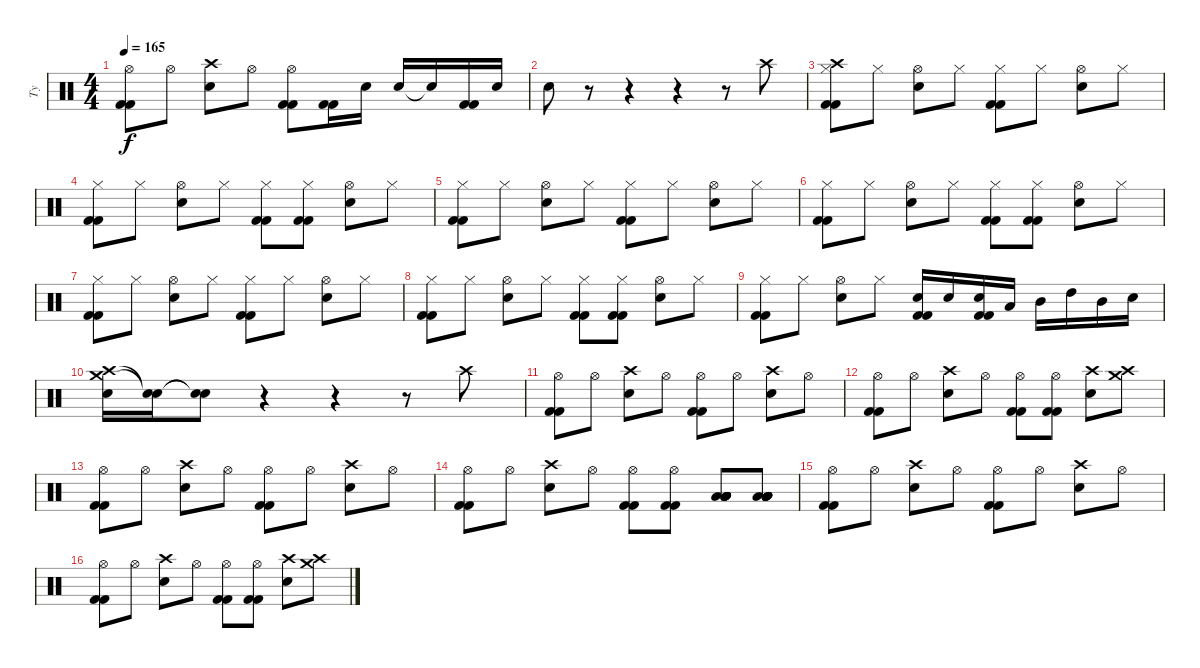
\track ("Ty" "Ty") {instrument percussion}
\staff {score}
\articulation defaults
\ts (4 4)
\tempo 165
\clef neutral
\ks c
("Hi-Hat (open)" "Kick (hit) 2" "Kick (hit) 2").8{dy f} "Hi-Hat (open)".8 ("Crash high (hit)" "Electric Snare (hit)").8 "Hi-Hat (open)".8 ("Hi-Hat (open)" "Kick (hit) 2" "Kick (hit) 2").8 ("Kick (hit) 2" "Kick (hit) 2").16 "Electric Snare (hit)".16 "Electric Snare (hit)".16 "Snare (hit)"{t}.16 ("Kick (hit) 2" "Kick (hit) 2").16 "Electric Snare (hit)".16 |
"Electric Snare (hit)".8 r.8 r.4 r.4 r.8 "Crash high (hit)".8 |
("Hi-Hat (closed)" "Crash high (hit)" "Kick (hit) 2" "Kick (hit) 2").8 "Hi-Hat (closed)".8 ("Hi-Hat (open)" "Electric Snare (hit)").8 "Hi-Hat (closed)".8 ("Hi-Hat (closed)" "Kick (hit) 2" "Kick (hit) 2").8 "Hi-Hat (closed)".8 ("Hi-Hat (open)" "Electric Snare (hit)").8 "Hi-Hat (closed)".8 |
("Hi-Hat (closed)" "Kick (hit) 2" "Kick (hit) 2").8 "Hi-Hat (closed)".8 ("Hi-Hat (open)" "Electric Snare (hit)").8 "Hi-Hat (closed)".8 ("Hi-Hat (closed)" "Kick (hit) 2" "Kick (hit) 2").8 ("Hi-Hat (closed)" "Kick (hit) 2" "Kick (hit) 2").8 ("Hi-Hat (open)" "Electric Snare (hit)").8 "Hi-Hat (closed)".8 |
("Hi-Hat (closed)" "Kick (hit) 2" "Kick (hit) 2").8 "Hi-Hat (closed)".8 ("Hi-Hat (open)" "Electric Snare (hit)").8 "Hi-Hat (closed)".8 ("Hi-Hat (closed)" "Kick (hit) 2" "Kick (hit) 2").8 "Hi-Hat (closed)".8 ("Hi-Hat (open)" "Electric Snare (hit)").8 "Hi-Hat (closed)".8 |
("Hi-Hat (closed)" "Kick (hit) 2" "Kick (hit) 2").8 "Hi-Hat (closed)".8 ("Hi-Hat (open)" "Electric Snare (hit)").8 "Hi-Hat (closed)".8 ("Hi-Hat (closed)" "Kick (hit) 2" "Kick (hit) 2").8 ("Hi-Hat (closed)" "Kick (hit) 2" "Kick (hit) 2").8 ("Hi-Hat (open)" "Electric Snare (hit)").8 "Hi-Hat (closed)".8 |
("Hi-Hat (closed)" "Kick (hit) 2" "Kick (hit) 2").8 "Hi-Hat (closed)".8 ("Hi-Hat (open)" "Electric Snare (hit)").8 "Hi-Hat (closed)".8 ("Hi-Hat (closed)" "Kick (hit) 2" "Kick (hit) 2").8 "Hi-Hat (closed)".8 ("Hi-Hat (open)" "Electric Snare (hit)").8 "Hi-Hat (closed)".8 |
("Hi-Hat (closed)" "Kick (hit) 2" "Kick (hit) 2").8 "Hi-Hat (closed)".8 ("Hi-Hat (open)" "Electric Snare (hit)").8 "Hi-Hat (closed)".8 ("Hi-Hat (closed)" "Kick (hit) 2" "Kick (hit) 2").8 ("Hi-Hat (closed)" "Kick (hit) 2" "Kick (hit) 2").8 ("Hi-Hat (open)" "Electric Snare (hit)").8 "Hi-Hat (closed)".8 |
("Hi-Hat (closed)" "Kick (hit) 2" "Kick (hit) 2").8 "Hi-Hat (closed)".8 ("Hi-Hat (open)" "Electric Snare (hit)").8 "Hi-Hat (closed)".8 ("Electric Snare (hit)" "Kick (hit) 2" "Kick (hit) 2").16 "Electric Snare (hit)".16 ("Electric Snare (hit)" "Kick (hit) 2" "Kick (hit) 2").16 "Low Tom (hit)".16 "Mid Tom (hit)".16 "High Tom (hit)".16 "Mid Tom (hit)".16 "Electric Snare (hit)".16 |
("Crash high (hit)" "Crash medium (hit)" "Electric Snare (hit)").16 ("Snare (hit)"{t} "Snare (hit)"{t}).16 ("Snare (hit)"{t} "Snare (hit)"{t}).8 r.4 r.4 r.8 "Crash high (hit)".8 |
("Hi-Hat (open)" "Kick (hit) 2" "Kick (hit) 2").8 "Hi-Hat (open)".8 ("Crash high (hit)" "Electric Snare (hit)").8 "Hi-Hat (open)".8 ("Hi-Hat (open)" "Kick (hit) 2" "Kick (hit) 2").8 "Hi-Hat (open)".8 ("Crash high (hit)" "Electric Snare (hit)").8 "Hi-Hat (open)".8 |
("Hi-Hat (open)" "Kick (hit) 2" "Kick (hit) 2").8 "Hi-Hat (open)".8 ("Crash high (hit)" "Electric Snare (hit)").8 "Hi-Hat (open)".8 ("Hi-Hat (open)" "Kick (hit) 2" "Kick (hit) 2").8 ("Hi-Hat (open)" "Kick (hit) 2" "Kick (hit) 2").8 ("Crash high (hit)" "Electric Snare (hit)").8 ("Crash high (hit)" "Crash medium (hit)").8 |
("Hi-Hat (open)" "Kick (hit) 2" "Kick (hit) 2").8 "Hi-Hat (open)".8 ("Crash high (hit)" "Electric Snare (hit)").8 "Hi-Hat (open)".8 ("Hi-Hat (open)" "Kick (hit) 2" "Kick (hit) 2").8 "Hi-Hat (open)".8 ("Crash high (hit)" "Electric Snare (hit)").8 "Hi-Hat (open)".8 |
("Hi-Hat (open)" "Kick (hit) 2" "Kick (hit) 2").8 "Hi-Hat (open)".8 ("Crash high (hit)" "Electric Snare (hit)").8 "Hi-Hat (open)".8 ("Hi-Hat (open)" "Kick (hit) 2" "Kick (hit) 2").8 ("Hi-Hat (open)" "Kick (hit) 2" "Kick (hit) 2").8 ("Low Tom (hit)" "Low Tom (hit)" "Low Tom (hit)" "Low Tom (hit)" "Low Tom (hit)" "Low Tom (hit)").8 ("Low Tom (hit)" "Low Tom (hit)" "Low Tom (hit)" "Low Tom (hit)" "Low Tom (hit)" "Low Tom (hit)").8 |
("Hi-Hat (open)" "Kick (hit) 2" "Kick (hit) 2").8 "Hi-Hat (open)".8 ("Crash high (hit)" "Electric Snare (hit)").8 "Hi-Hat (open)".8 ("Hi-Hat (open)" "Kick (hit) 2" "Kick (hit) 2").8 "Hi-Hat (open)".8 ("Crash high (hit)" "Electric Snare (hit)").8 "Hi-Hat (open)".8 |
("Hi-Hat (open)" "Kick (hit) 2" "Kick (hit) 2").8 "Hi-Hat (open)".8 ("Crash high (hit)" "Electric Snare (hit)").8 "Hi-Hat (open)".8 ("Hi-Hat (open)" "Kick (hit) 2" "Kick (hit) 2").8 ("Hi-Hat (open)" "Kick (hit) 2" "Kick (hit) 2").8 ("Crash high (hit)" "Electric Snare (hit)").8 ("Crash high (hit)" "Crash medium (hit)").8
